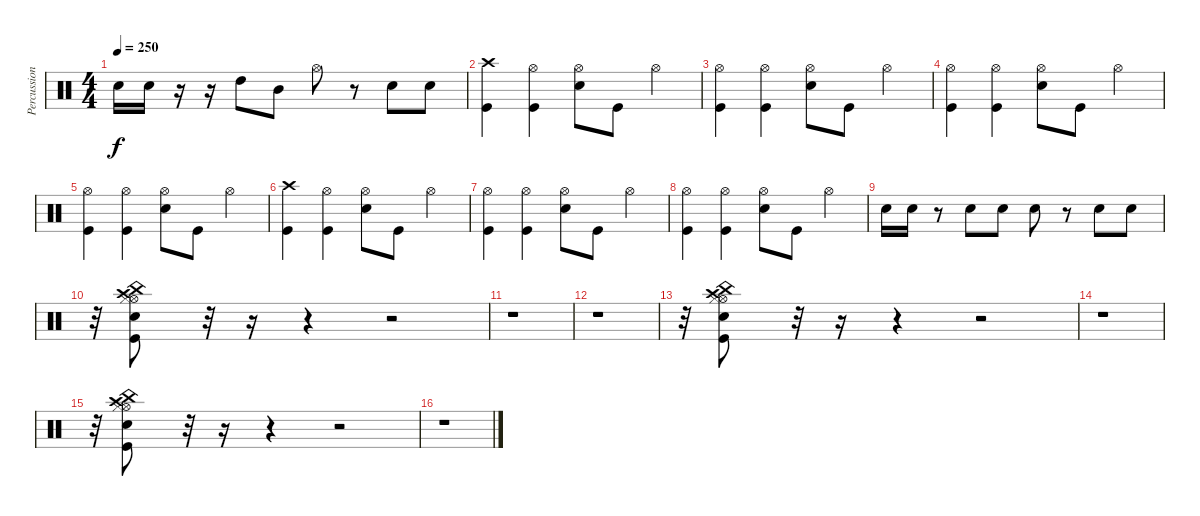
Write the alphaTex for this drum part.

\track ("Percussion" "Percussion") {instrument percussion}
\staff {score}
\articulation defaults
\ts (4 4)
\tempo 250
\clef neutral
\ks c "Snare (hit) 2".16{dy f} "Snare (hit) 2".16
r.16 r.16 "High Tom (hit)".8 "Mid Tom (hit)".8 "Hi-Hat (open)".8 r.8 "Snare (hit) 2".8 "Snare (hit) 2".8 |
("Crash high (hit)" "Kick (hit)").4 ("Hi-Hat (open)" "Kick (hit)").4 ("Hi-Hat (open)" "Snare (hit) 2").8 "Kick (hit)".8 "Hi-Hat (open)".4 |
("Hi-Hat (open)" "Kick (hit)").4 ("Hi-Hat (open)" "Kick (hit)").4 ("Hi-Hat (open)" "Snare (hit) 2").8 "Kick (hit)".8 "Hi-Hat (open)".4 |
("Hi-Hat (open)" "Kick (hit)").4 ("Hi-Hat (open)" "Kick (hit)").4 ("Hi-Hat (open)" "Snare (hit) 2").8 "Kick (hit)".8 "Hi-Hat (open)".4 |
("Hi-Hat (open)" "Kick (hit)").4 ("Hi-Hat (open)" "Kick (hit)").4 ("Hi-Hat (open)" "Snare (hit) 2").8 "Kick (hit)".8 "Hi-Hat (open)".4 |
("Crash high (hit)" "Kick (hit)").4 ("Hi-Hat (open)" "Kick (hit)").4 ("Hi-Hat (open)" "Snare (hit) 2").8 "Kick (hit)".8 "Hi-Hat (open)".4 |
("Hi-Hat (open)" "Kick (hit)").4 ("Hi-Hat (open)" "Kick (hit)").4 ("Hi-Hat (open)" "Snare (hit) 2").8 "Kick (hit)".8 "Hi-Hat (open)".4 |
("Hi-Hat (open)" "Kick (hit)").4 ("Hi-Hat (open)" "Kick (hit)").4 ("Hi-Hat (open)" "Snare (hit) 2").8 "Kick (hit)".8 "Hi-Hat (open)".4 |
"Snare (hit) 2".16 "Snare (hit) 2".16 r.8 "Snare (hit) 2".8 "Snare (hit) 2".8 "Snare (hit) 2".8 r.8 "Snare (hit) 2".8 "Snare (hit) 2".8 |
r.32 ("China (hit)" "Crash high (hit)" "Hi-Hat (open)" "Hi-Hat (closed)" "Snare (hit) 2" "Kick (hit)").8 r.32 r.16 r.4 r.2 |
r.1 |
r.1 |
r.32 ("China (hit)" "Crash high (hit)" "Hi-Hat (open)" "Hi-Hat (closed)" "Snare (hit) 2" "Kick (hit)").8 r.32 r.16 r.4 r.2 |
r.1 |
r.32 ("China (hit)" "Crash high (hit)" "Hi-Hat (open)" "Hi-Hat (closed)" "Snare (hit) 2" "Kick (hit)").8 r.32 r.16 r.4 r.2 |
r.1
